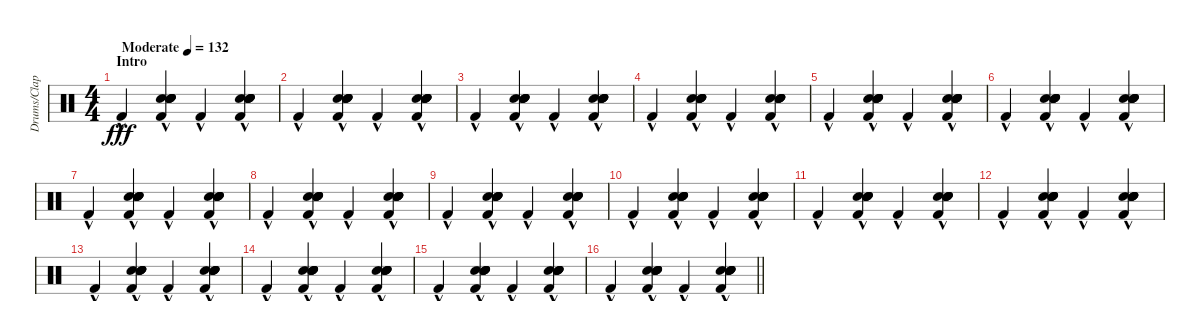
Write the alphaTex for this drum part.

\track ("Drums/Claps" "Drums/Clap") {instrument percussion}
\staff {score}
\articulation defaults
\ts (4 4)
\section ("" "Intro")
\tempo (132 "Moderate")
\clef neutral
\ks c "Kick (hit) 2"{hac}.4{dy fff}
("Hand Clap (hit)"{hac} "Hand Clap (hit)"{hac} "Hand Clap (hit)"{hac} "Snare (hit) 2"{hac} "Hand Clap (hit)"{hac} "Kick (hit) 2"{hac}).4 "Kick (hit) 2"{hac}.4 ("Hand Clap (hit)"{hac} "Hand Clap (hit)"{hac} "Hand Clap (hit)"{hac} "Snare (hit) 2"{hac} "Hand Clap (hit)"{hac} "Kick (hit) 2"{hac}).4 |
"Kick (hit) 2"{hac}.4 ("Hand Clap (hit)"{hac} "Hand Clap (hit)"{hac} "Hand Clap (hit)"{hac} "Snare (hit) 2"{hac} "Hand Clap (hit)"{hac} "Kick (hit) 2"{hac}).4 "Kick (hit) 2"{hac}.4 ("Hand Clap (hit)"{hac} "Hand Clap (hit)"{hac} "Hand Clap (hit)"{hac} "Snare (hit) 2"{hac} "Hand Clap (hit)"{hac} "Kick (hit) 2"{hac}).4 |
"Kick (hit) 2"{hac}.4 ("Hand Clap (hit)"{hac} "Hand Clap (hit)"{hac} "Hand Clap (hit)"{hac} "Snare (hit) 2"{hac} "Hand Clap (hit)"{hac} "Kick (hit) 2"{hac}).4 "Kick (hit) 2"{hac}.4 ("Hand Clap (hit)"{hac} "Hand Clap (hit)"{hac} "Hand Clap (hit)"{hac} "Snare (hit) 2"{hac} "Hand Clap (hit)"{hac} "Kick (hit) 2"{hac}).4 |
"Kick (hit) 2"{hac}.4 ("Hand Clap (hit)"{hac} "Hand Clap (hit)"{hac} "Hand Clap (hit)"{hac} "Snare (hit) 2"{hac} "Hand Clap (hit)"{hac} "Kick (hit) 2"{hac}).4 "Kick (hit) 2"{hac}.4 ("Hand Clap (hit)"{hac} "Hand Clap (hit)"{hac} "Hand Clap (hit)"{hac} "Snare (hit) 2"{hac} "Hand Clap (hit)"{hac} "Kick (hit) 2"{hac}).4 |
"Kick (hit) 2"{hac}.4 ("Hand Clap (hit)"{hac} "Hand Clap (hit)"{hac} "Hand Clap (hit)"{hac} "Snare (hit) 2"{hac} "Hand Clap (hit)"{hac} "Kick (hit) 2"{hac}).4 "Kick (hit) 2"{hac}.4 ("Hand Clap (hit)"{hac} "Hand Clap (hit)"{hac} "Hand Clap (hit)"{hac} "Snare (hit) 2"{hac} "Hand Clap (hit)"{hac} "Kick (hit) 2"{hac}).4 |
"Kick (hit) 2"{hac}.4 ("Hand Clap (hit)"{hac} "Hand Clap (hit)"{hac} "Hand Clap (hit)"{hac} "Snare (hit) 2"{hac} "Hand Clap (hit)"{hac} "Kick (hit) 2"{hac}).4 "Kick (hit) 2"{hac}.4 ("Hand Clap (hit)"{hac} "Hand Clap (hit)"{hac} "Hand Clap (hit)"{hac} "Snare (hit) 2"{hac} "Hand Clap (hit)"{hac} "Kick (hit) 2"{hac}).4 |
"Kick (hit) 2"{hac}.4 ("Hand Clap (hit)"{hac} "Hand Clap (hit)"{hac} "Hand Clap (hit)"{hac} "Snare (hit) 2"{hac} "Hand Clap (hit)"{hac} "Kick (hit) 2"{hac}).4 "Kick (hit) 2"{hac}.4 ("Hand Clap (hit)"{hac} "Hand Clap (hit)"{hac} "Hand Clap (hit)"{hac} "Snare (hit) 2"{hac} "Hand Clap (hit)"{hac} "Kick (hit) 2"{hac}).4 |
"Kick (hit) 2"{hac}.4 ("Hand Clap (hit)"{hac} "Hand Clap (hit)"{hac} "Hand Clap (hit)"{hac} "Snare (hit) 2"{hac} "Hand Clap (hit)"{hac} "Kick (hit) 2"{hac}).4 "Kick (hit) 2"{hac}.4 ("Hand Clap (hit)"{hac} "Hand Clap (hit)"{hac} "Hand Clap (hit)"{hac} "Snare (hit) 2"{hac} "Hand Clap (hit)"{hac} "Kick (hit) 2"{hac}).4 |
"Kick (hit) 2"{hac}.4 ("Hand Clap (hit)"{hac} "Hand Clap (hit)"{hac} "Hand Clap (hit)"{hac} "Snare (hit) 2"{hac} "Hand Clap (hit)"{hac} "Kick (hit) 2"{hac}).4 "Kick (hit) 2"{hac}.4 ("Hand Clap (hit)"{hac} "Hand Clap (hit)"{hac} "Hand Clap (hit)"{hac} "Snare (hit) 2"{hac} "Hand Clap (hit)"{hac} "Kick (hit) 2"{hac}).4 |
"Kick (hit) 2"{hac}.4 ("Hand Clap (hit)"{hac} "Hand Clap (hit)"{hac} "Hand Clap (hit)"{hac} "Snare (hit) 2"{hac} "Hand Clap (hit)"{hac} "Kick (hit) 2"{hac}).4 "Kick (hit) 2"{hac}.4 ("Hand Clap (hit)"{hac} "Hand Clap (hit)"{hac} "Hand Clap (hit)"{hac} "Snare (hit) 2"{hac} "Hand Clap (hit)"{hac} "Kick (hit) 2"{hac}).4 |
"Kick (hit) 2"{hac}.4 ("Hand Clap (hit)"{hac} "Hand Clap (hit)"{hac} "Hand Clap (hit)"{hac} "Snare (hit) 2"{hac} "Hand Clap (hit)"{hac} "Kick (hit) 2"{hac}).4 "Kick (hit) 2"{hac}.4 ("Hand Clap (hit)"{hac} "Hand Clap (hit)"{hac} "Hand Clap (hit)"{hac} "Snare (hit) 2"{hac} "Hand Clap (hit)"{hac} "Kick (hit) 2"{hac}).4 |
"Kick (hit) 2"{hac}.4 ("Hand Clap (hit)"{hac} "Hand Clap (hit)"{hac} "Hand Clap (hit)"{hac} "Snare (hit) 2"{hac} "Hand Clap (hit)"{hac} "Kick (hit) 2"{hac}).4 "Kick (hit) 2"{hac}.4 ("Hand Clap (hit)"{hac} "Hand Clap (hit)"{hac} "Hand Clap (hit)"{hac} "Snare (hit) 2"{hac} "Hand Clap (hit)"{hac} "Kick (hit) 2"{hac}).4 |
"Kick (hit) 2"{hac}.4 ("Hand Clap (hit)"{hac} "Hand Clap (hit)"{hac} "Hand Clap (hit)"{hac} "Snare (hit) 2"{hac} "Hand Clap (hit)"{hac} "Kick (hit) 2"{hac}).4 "Kick (hit) 2"{hac}.4 ("Hand Clap (hit)"{hac} "Hand Clap (hit)"{hac} "Hand Clap (hit)"{hac} "Snare (hit) 2"{hac} "Hand Clap (hit)"{hac} "Kick (hit) 2"{hac}).4 |
"Kick (hit) 2"{hac}.4 ("Hand Clap (hit)"{hac} "Hand Clap (hit)"{hac} "Hand Clap (hit)"{hac} "Snare (hit) 2"{hac} "Hand Clap (hit)"{hac} "Kick (hit) 2"{hac}).4 "Kick (hit) 2"{hac}.4 ("Hand Clap (hit)"{hac} "Hand Clap (hit)"{hac} "Hand Clap (hit)"{hac} "Snare (hit) 2"{hac} "Hand Clap (hit)"{hac} "Kick (hit) 2"{hac}).4 |
"Kick (hit) 2"{hac}.4 ("Hand Clap (hit)"{hac} "Hand Clap (hit)"{hac} "Hand Clap (hit)"{hac} "Snare (hit) 2"{hac} "Hand Clap (hit)"{hac} "Kick (hit) 2"{hac}).4 "Kick (hit) 2"{hac}.4 ("Hand Clap (hit)"{hac} "Hand Clap (hit)"{hac} "Hand Clap (hit)"{hac} "Snare (hit) 2"{hac} "Hand Clap (hit)"{hac} "Kick (hit) 2"{hac}).4 |
\barLineRight lightlight "Kick (hit) 2"{hac}.4
("Hand Clap (hit)"{hac} "Hand Clap (hit)"{hac} "Hand Clap (hit)"{hac} "Snare (hit) 2"{hac} "Hand Clap (hit)"{hac} "Kick (hit) 2"{hac}).4 "Kick (hit) 2"{hac}.4 ("Hand Clap (hit)"{hac} "Hand Clap (hit)"{hac} "Hand Clap (hit)"{hac} "Snare (hit) 2"{hac} "Hand Clap (hit)"{hac} "Kick (hit) 2"{hac}).4
